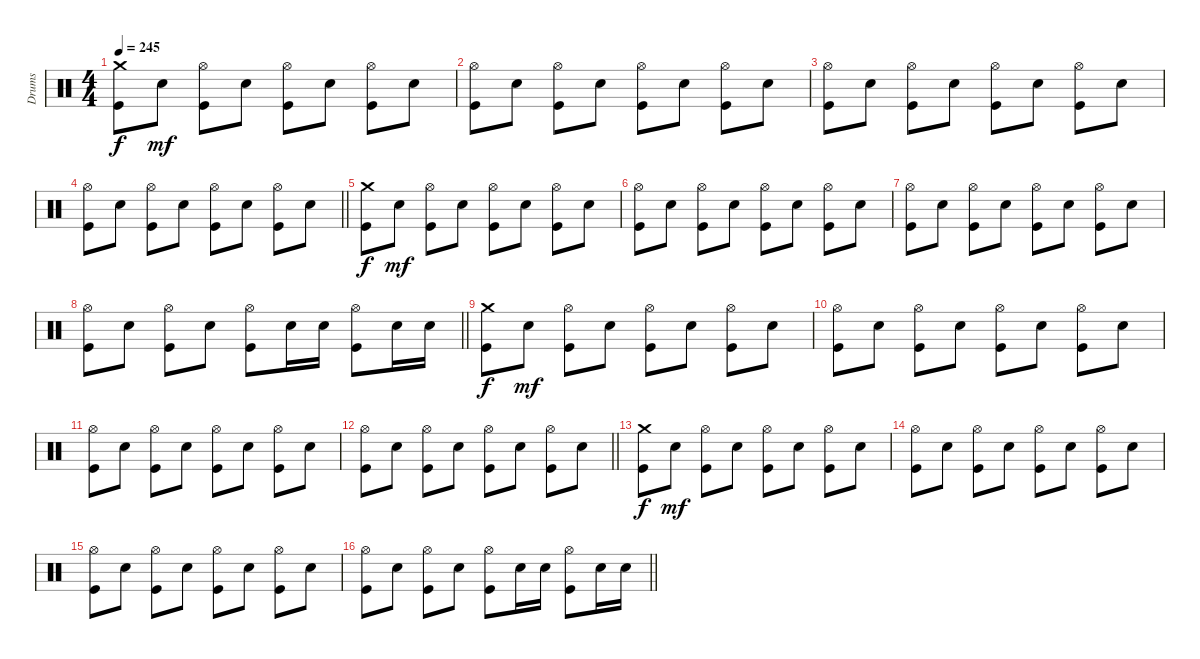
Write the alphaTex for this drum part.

\track ("Drums" "Drums") {instrument percussion}
\staff {score}
\articulation defaults
\ts (4 4)
\tempo 245
\clef neutral
\ks c
("Crash medium (hit)" "Kick (hit)").8{dy f} "Snare (hit) 2".8{dy mf} ("Hi-Hat (open)" "Kick (hit)").8 "Snare (hit) 2".8 ("Hi-Hat (open)" "Kick (hit)").8 "Snare (hit) 2".8 ("Hi-Hat (open)" "Kick (hit)").8 "Snare (hit) 2".8 |
("Hi-Hat (open)" "Kick (hit)").8 "Snare (hit) 2".8 ("Hi-Hat (open)" "Kick (hit)").8 "Snare (hit) 2".8 ("Hi-Hat (open)" "Kick (hit)").8 "Snare (hit) 2".8 ("Hi-Hat (open)" "Kick (hit)").8 "Snare (hit) 2".8 |
("Hi-Hat (open)" "Kick (hit)").8 "Snare (hit) 2".8 ("Hi-Hat (open)" "Kick (hit)").8 "Snare (hit) 2".8 ("Hi-Hat (open)" "Kick (hit)").8 "Snare (hit) 2".8 ("Hi-Hat (open)" "Kick (hit)").8 "Snare (hit) 2".8 |
\barLineRight lightlight
("Hi-Hat (open)" "Kick (hit)").8 "Snare (hit) 2".8 ("Hi-Hat (open)" "Kick (hit)").8 "Snare (hit) 2".8 ("Hi-Hat (open)" "Kick (hit)").8 "Snare (hit) 2".8 ("Hi-Hat (open)" "Kick (hit)").8 "Snare (hit) 2".8 |
("Crash medium (hit)" "Kick (hit)").8{dy f} "Snare (hit) 2".8{dy mf} ("Hi-Hat (open)" "Kick (hit)").8 "Snare (hit) 2".8 ("Hi-Hat (open)" "Kick (hit)").8 "Snare (hit) 2".8 ("Hi-Hat (open)" "Kick (hit)").8 "Snare (hit) 2".8 |
("Hi-Hat (open)" "Kick (hit)").8 "Snare (hit) 2".8 ("Hi-Hat (open)" "Kick (hit)").8 "Snare (hit) 2".8 ("Hi-Hat (open)" "Kick (hit)").8 "Snare (hit) 2".8 ("Hi-Hat (open)" "Kick (hit)").8 "Snare (hit) 2".8 |
("Hi-Hat (open)" "Kick (hit)").8 "Snare (hit) 2".8 ("Hi-Hat (open)" "Kick (hit)").8 "Snare (hit) 2".8 ("Hi-Hat (open)" "Kick (hit)").8 "Snare (hit) 2".8 ("Hi-Hat (open)" "Kick (hit)").8 "Snare (hit) 2".8 |
\barLineRight lightlight
("Hi-Hat (open)" "Kick (hit)").8 "Snare (hit) 2".8 ("Hi-Hat (open)" "Kick (hit)").8 "Snare (hit) 2".8 ("Hi-Hat (open)" "Kick (hit)").8 "Snare (hit) 2".16 "Snare (hit) 2".16 ("Hi-Hat (open)" "Kick (hit)").8 "Snare (hit) 2".16 "Snare (hit) 2".16 |
("Crash medium (hit)" "Kick (hit)").8{dy f} "Snare (hit) 2".8{dy mf} ("Hi-Hat (open)" "Kick (hit)").8 "Snare (hit) 2".8 ("Hi-Hat (open)" "Kick (hit)").8 "Snare (hit) 2".8 ("Hi-Hat (open)" "Kick (hit)").8 "Snare (hit) 2".8 |
("Hi-Hat (open)" "Kick (hit)").8 "Snare (hit) 2".8 ("Hi-Hat (open)" "Kick (hit)").8 "Snare (hit) 2".8 ("Hi-Hat (open)" "Kick (hit)").8 "Snare (hit) 2".8 ("Hi-Hat (open)" "Kick (hit)").8 "Snare (hit) 2".8 |
("Hi-Hat (open)" "Kick (hit)").8 "Snare (hit) 2".8 ("Hi-Hat (open)" "Kick (hit)").8 "Snare (hit) 2".8 ("Hi-Hat (open)" "Kick (hit)").8 "Snare (hit) 2".8 ("Hi-Hat (open)" "Kick (hit)").8 "Snare (hit) 2".8 |
\barLineRight lightlight
("Hi-Hat (open)" "Kick (hit)").8 "Snare (hit) 2".8 ("Hi-Hat (open)" "Kick (hit)").8 "Snare (hit) 2".8 ("Hi-Hat (open)" "Kick (hit)").8 "Snare (hit) 2".8 ("Hi-Hat (open)" "Kick (hit)").8 "Snare (hit) 2".8 |
("Crash medium (hit)" "Kick (hit)").8{dy f} "Snare (hit) 2".8{dy mf} ("Hi-Hat (open)" "Kick (hit)").8 "Snare (hit) 2".8 ("Hi-Hat (open)" "Kick (hit)").8 "Snare (hit) 2".8 ("Hi-Hat (open)" "Kick (hit)").8 "Snare (hit) 2".8 |
("Hi-Hat (open)" "Kick (hit)").8 "Snare (hit) 2".8 ("Hi-Hat (open)" "Kick (hit)").8 "Snare (hit) 2".8 ("Hi-Hat (open)" "Kick (hit)").8 "Snare (hit) 2".8 ("Hi-Hat (open)" "Kick (hit)").8 "Snare (hit) 2".8 |
("Hi-Hat (open)" "Kick (hit)").8 "Snare (hit) 2".8 ("Hi-Hat (open)" "Kick (hit)").8 "Snare (hit) 2".8 ("Hi-Hat (open)" "Kick (hit)").8 "Snare (hit) 2".8 ("Hi-Hat (open)" "Kick (hit)").8 "Snare (hit) 2".8 |
\barLineRight lightlight
("Hi-Hat (open)" "Kick (hit)").8 "Snare (hit) 2".8 ("Hi-Hat (open)" "Kick (hit)").8 "Snare (hit) 2".8 ("Hi-Hat (open)" "Kick (hit)").8 "Snare (hit) 2".16 "Snare (hit) 2".16 ("Hi-Hat (open)" "Kick (hit)").8 "Snare (hit) 2".16 "Snare (hit) 2".16
